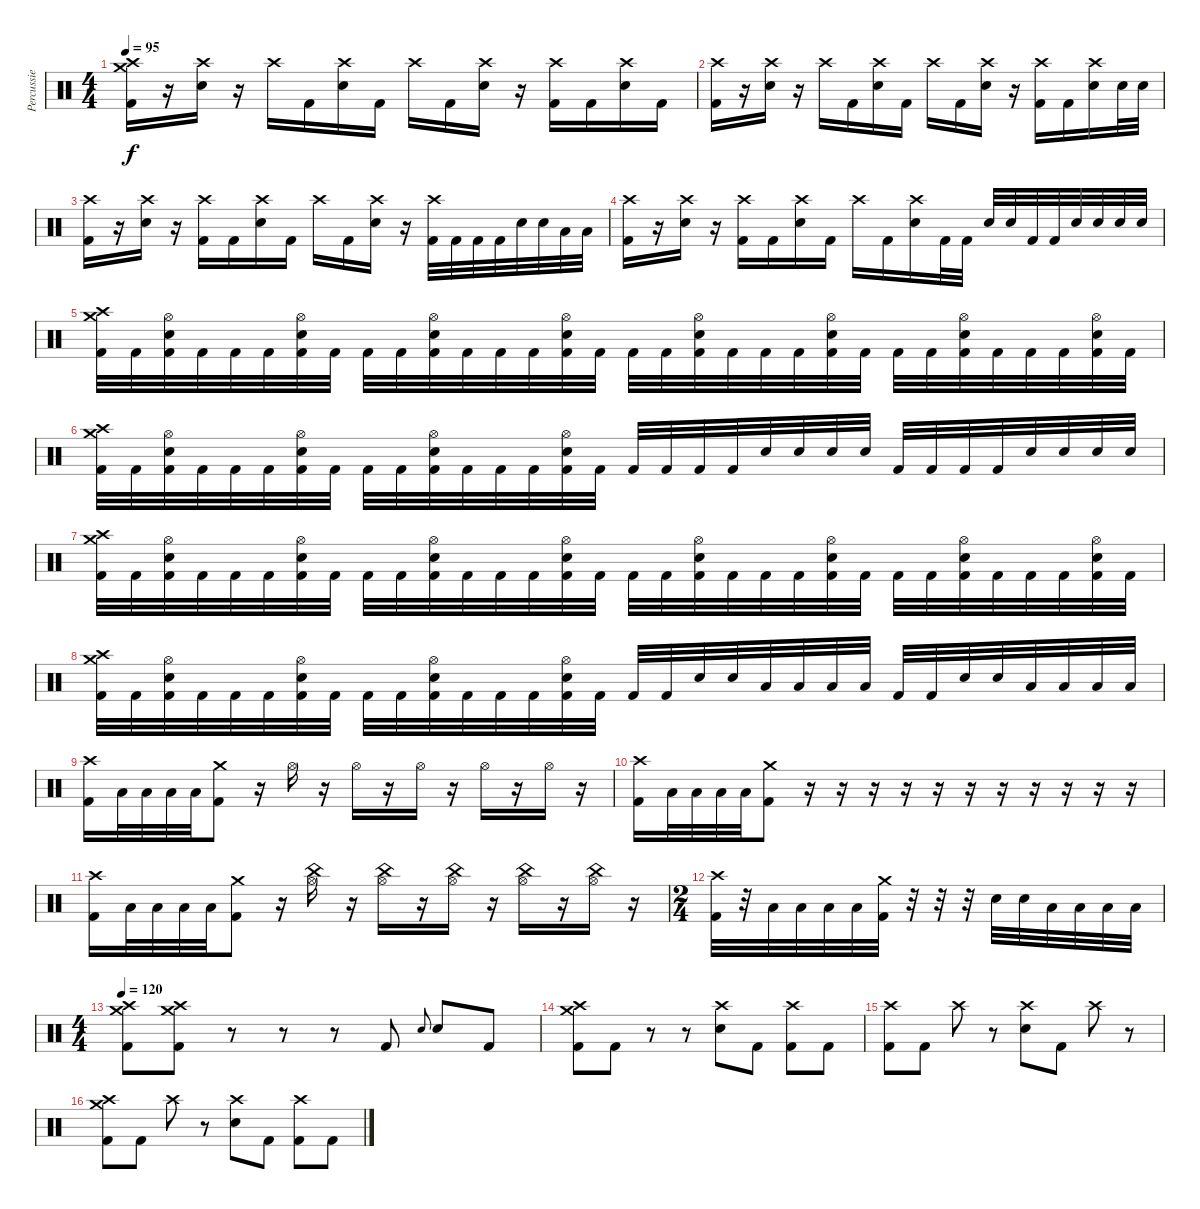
\track ("Percussie" "Percussie") {instrument percussion}
\staff {score}
\articulation defaults
\ts (4 4)
\tempo 95
\clef neutral
\ks c
("Crash medium (hit)" "Crash high (hit)" "Kick (hit) 2").16{dy f} r.16 ("Crash high (hit)" "Electric Snare (hit)").16 r.16 "Crash high (hit)".16 "Kick (hit) 2".16 ("Crash high (hit)" "Electric Snare (hit)").16 "Kick (hit) 2".16 "Crash high (hit)".16 "Kick (hit) 2".16 ("Crash high (hit)" "Electric Snare (hit)").16 r.16 ("Crash high (hit)" "Kick (hit) 2").16 "Kick (hit) 2".16 ("Crash high (hit)" "Electric Snare (hit)").16 "Kick (hit) 2".16 |
("Crash high (hit)" "Kick (hit) 2").16 r.16 ("Crash high (hit)" "Electric Snare (hit)").16 r.16 "Crash high (hit)".16 "Kick (hit) 2".16 ("Crash high (hit)" "Electric Snare (hit)").16 "Kick (hit) 2".16 "Crash high (hit)".16 "Kick (hit) 2".16 ("Crash high (hit)" "Electric Snare (hit)").16 r.16 ("Crash high (hit)" "Kick (hit) 2").16 "Kick (hit) 2".16 ("Crash high (hit)" "Electric Snare (hit)").16 "Electric Snare (hit)".32 "Electric Snare (hit)".32 |
("Crash high (hit)" "Kick (hit) 2").16 r.16 ("Crash high (hit)" "Electric Snare (hit)").16 r.16 ("Crash high (hit)" "Kick (hit) 2").16 "Kick (hit) 2".16 ("Crash high (hit)" "Electric Snare (hit)").16 "Kick (hit) 2".16 "Crash high (hit)".16 "Kick (hit) 2".16 ("Crash high (hit)" "Electric Snare (hit)").16 r.16 ("Crash high (hit)" "Kick (hit) 2").32 "Kick (hit) 2".32 "Kick (hit) 2".32 "Kick (hit) 2".32 "Electric Snare (hit)".32 "Electric Snare (hit)".32 "Low Tom (hit)".32 "Low Tom (hit)".32 |
("Crash high (hit)" "Kick (hit) 2").16 r.16 ("Crash high (hit)" "Electric Snare (hit)").16 r.16 ("Crash high (hit)" "Kick (hit) 2").16 "Kick (hit) 2".16 ("Crash high (hit)" "Electric Snare (hit)").16 "Kick (hit) 2".16 "Crash high (hit)".16 "Kick (hit) 2".16 ("Crash high (hit)" "Electric Snare (hit)").16 "Kick (hit) 2".32 "Kick (hit) 2".32 "Electric Snare (hit)".32 "Electric Snare (hit)".32 "Kick (hit) 2".32 "Kick (hit) 2".32 "Electric Snare (hit)".32 "Electric Snare (hit)".32 "Electric Snare (hit)".32 "Electric Snare (hit)".32 |
("Crash medium (hit)" "Crash high (hit)" "Kick (hit) 2").32 "Kick (hit) 2".32 ("Hi-Hat (open)" "Electric Snare (hit)" "Kick (hit) 2").32 "Kick (hit) 2".32 "Kick (hit) 2".32 "Kick (hit) 2".32 ("Hi-Hat (open)" "Electric Snare (hit)" "Kick (hit) 2").32 "Kick (hit) 2".32 "Kick (hit) 2".32 "Kick (hit) 2".32 ("Hi-Hat (open)" "Electric Snare (hit)" "Kick (hit) 2").32 "Kick (hit) 2".32 "Kick (hit) 2".32 "Kick (hit) 2".32 ("Hi-Hat (open)" "Electric Snare (hit)" "Kick (hit) 2").32 "Kick (hit) 2".32 "Kick (hit) 2".32 "Kick (hit) 2".32 ("Hi-Hat (open)" "Electric Snare (hit)" "Kick (hit) 2").32 "Kick (hit) 2".32 "Kick (hit) 2".32 "Kick (hit) 2".32 ("Hi-Hat (open)" "Electric Snare (hit)" "Kick (hit) 2").32 "Kick (hit) 2".32 "Kick (hit) 2".32 "Kick (hit) 2".32 ("Hi-Hat (open)" "Electric Snare (hit)" "Kick (hit) 2").32 "Kick (hit) 2".32 "Kick (hit) 2".32 "Kick (hit) 2".32 ("Hi-Hat (open)" "Electric Snare (hit)" "Kick (hit) 2").32 "Kick (hit) 2".32 |
("Crash medium (hit)" "Crash high (hit)" "Kick (hit) 2").32 "Kick (hit) 2".32 ("Hi-Hat (open)" "Electric Snare (hit)" "Kick (hit) 2").32 "Kick (hit) 2".32 "Kick (hit) 2".32 "Kick (hit) 2".32 ("Hi-Hat (open)" "Electric Snare (hit)" "Kick (hit) 2").32 "Kick (hit) 2".32 "Kick (hit) 2".32 "Kick (hit) 2".32 ("Hi-Hat (open)" "Electric Snare (hit)" "Kick (hit) 2").32 "Kick (hit) 2".32 "Kick (hit) 2".32 "Kick (hit) 2".32 ("Hi-Hat (open)" "Electric Snare (hit)" "Kick (hit) 2").32 "Kick (hit) 2".32 "Kick (hit) 2".32 "Kick (hit) 2".32 "Kick (hit) 2".32 "Kick (hit) 2".32 "Electric Snare (hit)".32 "Electric Snare (hit)".32 "Electric Snare (hit)".32 "Electric Snare (hit)".32 "Kick (hit) 2".32 "Kick (hit) 2".32 "Kick (hit) 2".32 "Kick (hit) 2".32 "Electric Snare (hit)".32 "Electric Snare (hit)".32 "Electric Snare (hit)".32 "Electric Snare (hit)".32 |
("Crash medium (hit)" "Crash high (hit)" "Kick (hit) 2").32 "Kick (hit) 2".32 ("Hi-Hat (open)" "Electric Snare (hit)" "Kick (hit) 2").32 "Kick (hit) 2".32 "Kick (hit) 2".32 "Kick (hit) 2".32 ("Hi-Hat (open)" "Electric Snare (hit)" "Kick (hit) 2").32 "Kick (hit) 2".32 "Kick (hit) 2".32 "Kick (hit) 2".32 ("Hi-Hat (open)" "Electric Snare (hit)" "Kick (hit) 2").32 "Kick (hit) 2".32 "Kick (hit) 2".32 "Kick (hit) 2".32 ("Hi-Hat (open)" "Electric Snare (hit)" "Kick (hit) 2").32 "Kick (hit) 2".32 "Kick (hit) 2".32 "Kick (hit) 2".32 ("Hi-Hat (open)" "Electric Snare (hit)" "Kick (hit) 2").32 "Kick (hit) 2".32 "Kick (hit) 2".32 "Kick (hit) 2".32 ("Hi-Hat (open)" "Electric Snare (hit)" "Kick (hit) 2").32 "Kick (hit) 2".32 "Kick (hit) 2".32 "Kick (hit) 2".32 ("Hi-Hat (open)" "Electric Snare (hit)" "Kick (hit) 2").32 "Kick (hit) 2".32 "Kick (hit) 2".32 "Kick (hit) 2".32 ("Hi-Hat (open)" "Electric Snare (hit)" "Kick (hit) 2").32 "Kick (hit) 2".32 |
("Crash medium (hit)" "Crash high (hit)" "Kick (hit) 2").32 "Kick (hit) 2".32 ("Hi-Hat (open)" "Electric Snare (hit)" "Kick (hit) 2").32 "Kick (hit) 2".32 "Kick (hit) 2".32 "Kick (hit) 2".32 ("Hi-Hat (open)" "Electric Snare (hit)" "Kick (hit) 2").32 "Kick (hit) 2".32 "Kick (hit) 2".32 "Kick (hit) 2".32 ("Hi-Hat (open)" "Electric Snare (hit)" "Kick (hit) 2").32 "Kick (hit) 2".32 "Kick (hit) 2".32 "Kick (hit) 2".32 ("Hi-Hat (open)" "Electric Snare (hit)" "Kick (hit) 2").32 "Kick (hit) 2".32 "Kick (hit) 2".32 "Kick (hit) 2".32 "Electric Snare (hit)".32 "Electric Snare (hit)".32 "Low Tom (hit)".32 "Low Tom (hit)".32 "Low Floor Tom (hit)".32 "Low Floor Tom (hit)".32 "Kick (hit) 2".32 "Kick (hit) 2".32 "Electric Snare (hit)".32 "Electric Snare (hit)".32 "Low Tom (hit)".32 "Low Tom (hit)".32 "Low Floor Tom (hit)".32 "Low Floor Tom (hit)".32 |
("Crash high (hit)" "Kick (hit) 2").16 "Low Tom (hit)".32 "Low Tom (hit)".32 "Low Floor Tom (hit)".32 "Low Floor Tom (hit)".32 ("Crash medium (hit)" "Kick (hit) 2").8 r.16 "Hi-Hat (open)".16 r.16 "Hi-Hat (open)".16 r.16 "Hi-Hat (open)".16 r.16 "Hi-Hat (open)".16 r.16 "Hi-Hat (open)".16 r.16 |
("Crash high (hit)" "Kick (hit) 2").16 "Low Tom (hit)".32 "Low Tom (hit)".32 "Low Floor Tom (hit)".32 "Low Floor Tom (hit)".32 ("Crash medium (hit)" "Kick (hit) 2").8 r.16 r.16 r.16 r.16 r.16 r.16 r.16 r.16 r.16 r.16 r.16 |
("Crash high (hit)" "Kick (hit) 2").16 "Low Tom (hit)".32 "Low Tom (hit)".32 "Low Floor Tom (hit)".32 "Low Floor Tom (hit)".32 ("Crash medium (hit)" "Kick (hit) 2").8 r.16 ("China (hit)" "Hi-Hat (open)").16 r.16 ("China (hit)" "Hi-Hat (open)").16 r.16 ("China (hit)" "Hi-Hat (open)").16 r.16 ("China (hit)" "Hi-Hat (open)").16 r.16 ("China (hit)" "Hi-Hat (open)").16 r.16 |
\ts (2 4)
("Crash high (hit)" "Kick (hit) 2").32 r.32 "Low Tom (hit)".32 "Low Tom (hit)".32 "Low Floor Tom (hit)".32 "Low Floor Tom (hit)".32 ("Crash medium (hit)" "Kick (hit) 2").32 r.32 r.32 r.32 "Electric Snare (hit)".32 "Electric Snare (hit)".32 "Low Tom (hit)".32 "Low Tom (hit)".32 "Low Tom (hit)".32 "Low Floor Tom (hit)".32 |
\ts (4 4)
\tempo 120
("Crash medium (hit)" "Crash high (hit)" "Kick (hit) 2").8 ("Crash medium (hit)" "Crash high (hit)" "Kick (hit) 2").8 r.8 r.8 r.8 "Kick (hit) 2".8 "Electric Snare (hit)".8{gr onbeat} "Electric Snare (hit)".8 "Kick (hit) 2".8 |
("Crash medium (hit)" "Crash high (hit)" "Kick (hit) 2").8 "Kick (hit) 2".8 r.8 r.8 ("Crash high (hit)" "Electric Snare (hit)").8 "Kick (hit) 2".8 ("Crash high (hit)" "Kick (hit) 2").8 "Kick (hit) 2".8 |
("Crash high (hit)" "Kick (hit) 2").8 "Kick (hit) 2".8 "Crash high (hit)".8 r.8 ("Crash high (hit)" "Electric Snare (hit)").8 "Kick (hit) 2".8 "Crash high (hit)".8 r.8 |
("Crash medium (hit)" "Crash high (hit)" "Kick (hit) 2").8 "Kick (hit) 2".8 "Crash high (hit)".8 r.8 ("Crash high (hit)" "Electric Snare (hit)").8 "Kick (hit) 2".8 ("Crash high (hit)" "Kick (hit) 2").8 "Kick (hit) 2".8
